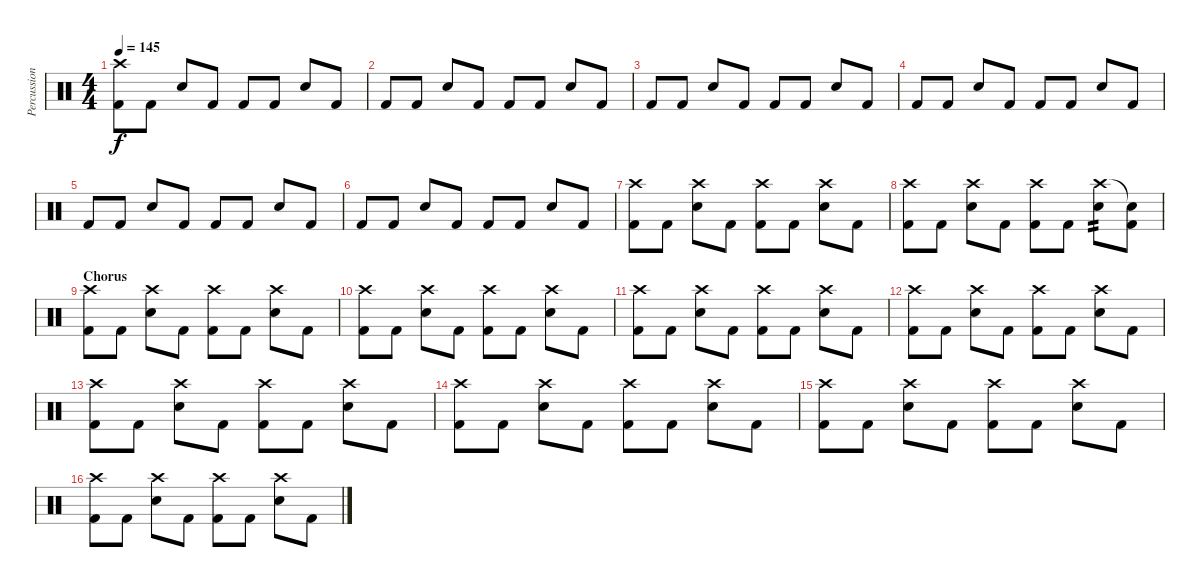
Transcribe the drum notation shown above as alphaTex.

\track ("Percussion" "Percussion") {instrument percussion}
\staff {score}
\articulation defaults
\ts (4 4)
\tempo 145
\clef neutral
\ks c
("Crash high (hit)" "Kick (hit) 2").8{dy f} "Kick (hit) 2".8 "Electric Snare (hit)".8 "Kick (hit) 2".8 "Kick (hit) 2".8 "Kick (hit) 2".8 "Electric Snare (hit)".8 "Kick (hit) 2".8 |
"Kick (hit) 2".8 "Kick (hit) 2".8 "Electric Snare (hit)".8 "Kick (hit) 2".8 "Kick (hit) 2".8 "Kick (hit) 2".8 "Electric Snare (hit)".8 "Kick (hit) 2".8 |
"Kick (hit) 2".8 "Kick (hit) 2".8 "Electric Snare (hit)".8 "Kick (hit) 2".8 "Kick (hit) 2".8 "Kick (hit) 2".8 "Electric Snare (hit)".8 "Kick (hit) 2".8 |
"Kick (hit) 2".8 "Kick (hit) 2".8 "Electric Snare (hit)".8 "Kick (hit) 2".8 "Kick (hit) 2".8 "Kick (hit) 2".8 "Electric Snare (hit)".8 "Kick (hit) 2".8 |
"Kick (hit) 2".8 "Kick (hit) 2".8 "Electric Snare (hit)".8 "Kick (hit) 2".8 "Kick (hit) 2".8 "Kick (hit) 2".8 "Electric Snare (hit)".8 "Kick (hit) 2".8 |
"Kick (hit) 2".8 "Kick (hit) 2".8 "Electric Snare (hit)".8 "Kick (hit) 2".8 "Kick (hit) 2".8 "Kick (hit) 2".8 "Electric Snare (hit)".8 "Kick (hit) 2".8 |
("Crash high (hit)" "Kick (hit) 2").8 "Kick (hit) 2".8 ("Crash high (hit)" "Electric Snare (hit)").8 "Kick (hit) 2".8 ("Crash high (hit)" "Kick (hit) 2").8 "Kick (hit) 2".8 ("Crash high (hit)" "Electric Snare (hit)").8 "Kick (hit) 2".8 |
("Crash high (hit)" "Kick (hit) 2").8 "Kick (hit) 2".8 ("Crash high (hit)" "Electric Snare (hit)").8 "Kick (hit) 2".8 ("Crash high (hit)" "Kick (hit) 2").8 "Kick (hit) 2".8 ("Crash high (hit)" "Electric Snare (hit)").8{tp 2} ("Snare (hit)"{t} "Kick (hit) 2").8 |
\section ("" "Chorus")
("Crash high (hit)" "Kick (hit) 2").8 "Kick (hit) 2".8 ("Crash high (hit)" "Electric Snare (hit)").8 "Kick (hit) 2".8 ("Crash high (hit)" "Kick (hit) 2").8 "Kick (hit) 2".8 ("Crash high (hit)" "Electric Snare (hit)").8 "Kick (hit) 2".8 |
("Crash high (hit)" "Kick (hit) 2").8 "Kick (hit) 2".8 ("Crash high (hit)" "Electric Snare (hit)").8 "Kick (hit) 2".8 ("Crash high (hit)" "Kick (hit) 2").8 "Kick (hit) 2".8 ("Crash high (hit)" "Electric Snare (hit)").8 "Kick (hit) 2".8 |
("Crash high (hit)" "Kick (hit) 2").8 "Kick (hit) 2".8 ("Crash high (hit)" "Electric Snare (hit)").8 "Kick (hit) 2".8 ("Crash high (hit)" "Kick (hit) 2").8 "Kick (hit) 2".8 ("Crash high (hit)" "Electric Snare (hit)").8 "Kick (hit) 2".8 |
("Crash high (hit)" "Kick (hit) 2").8 "Kick (hit) 2".8 ("Crash high (hit)" "Electric Snare (hit)").8 "Kick (hit) 2".8 ("Crash high (hit)" "Kick (hit) 2").8 "Kick (hit) 2".8 ("Crash high (hit)" "Electric Snare (hit)").8 "Kick (hit) 2".8 |
("Crash high (hit)" "Kick (hit) 2").8 "Kick (hit) 2".8 ("Crash high (hit)" "Electric Snare (hit)").8 "Kick (hit) 2".8 ("Crash high (hit)" "Kick (hit) 2").8 "Kick (hit) 2".8 ("Crash high (hit)" "Electric Snare (hit)").8 "Kick (hit) 2".8 |
("Crash high (hit)" "Kick (hit) 2").8 "Kick (hit) 2".8 ("Crash high (hit)" "Electric Snare (hit)").8 "Kick (hit) 2".8 ("Crash high (hit)" "Kick (hit) 2").8 "Kick (hit) 2".8 ("Crash high (hit)" "Electric Snare (hit)").8 "Kick (hit) 2".8 |
("Crash high (hit)" "Kick (hit) 2").8 "Kick (hit) 2".8 ("Crash high (hit)" "Electric Snare (hit)").8 "Kick (hit) 2".8 ("Crash high (hit)" "Kick (hit) 2").8 "Kick (hit) 2".8 ("Crash high (hit)" "Electric Snare (hit)").8 "Kick (hit) 2".8 |
("Crash high (hit)" "Kick (hit) 2").8 "Kick (hit) 2".8 ("Crash high (hit)" "Electric Snare (hit)").8 "Kick (hit) 2".8 ("Crash high (hit)" "Kick (hit) 2").8 "Kick (hit) 2".8 ("Crash high (hit)" "Electric Snare (hit)").8 "Kick (hit) 2".8
